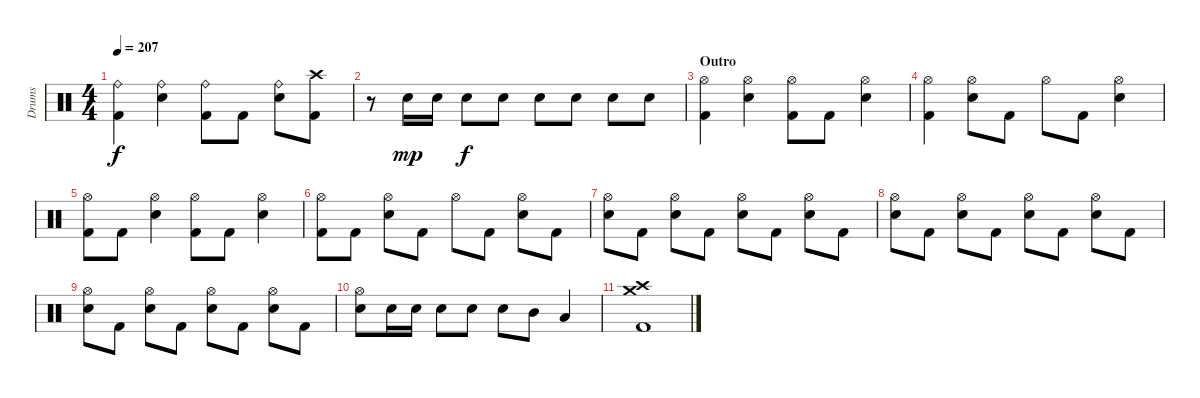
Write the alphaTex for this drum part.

\track ("Drums" "Drums") {instrument percussion}
\staff {score}
\articulation defaults
\ts (4 4)
\tempo 207
\clef neutral
\ks c
("Ride (bell)" "Kick (hit) 2").4{dy f} ("Ride (bell)" "Snare (hit) 2").4 ("Ride (bell)" "Kick (hit) 2").8 "Kick (hit) 2".8 ("Ride (bell)" "Snare (hit) 2").8 ("Crash high (hit)" "Kick (hit) 2").8 |
r.8 "Snare (hit) 2".16{dy mp} "Snare (hit) 2".16 "Snare (hit) 2".8{dy f} "Snare (hit) 2".8 "Snare (hit) 2".8 "Snare (hit) 2".8 "Snare (hit) 2".8 "Snare (hit) 2".8 |
\section ("" "Outro")
("Hi-Hat (open)" "Kick (hit) 2").4 ("Hi-Hat (open)" "Snare (hit) 2").4 ("Hi-Hat (open)" "Kick (hit) 2").8 "Kick (hit) 2".8 ("Hi-Hat (open)" "Snare (hit) 2").4 |
("Hi-Hat (open)" "Kick (hit) 2").4 ("Hi-Hat (open)" "Snare (hit) 2").8 "Kick (hit) 2".8 "Hi-Hat (open)".8 "Kick (hit) 2".8 ("Hi-Hat (open)" "Snare (hit) 2").4 |
("Hi-Hat (open)" "Kick (hit) 2").8 "Kick (hit) 2".8 ("Hi-Hat (open)" "Snare (hit) 2").4 ("Hi-Hat (open)" "Kick (hit) 2").8 "Kick (hit) 2".8 ("Hi-Hat (open)" "Snare (hit) 2").4 |
("Hi-Hat (open)" "Kick (hit) 2").8 "Kick (hit) 2".8 ("Hi-Hat (open)" "Snare (hit) 2").8 "Kick (hit) 2".8 "Hi-Hat (open)".8 "Kick (hit) 2".8 ("Hi-Hat (open)" "Snare (hit) 2").8 "Kick (hit) 2".8 |
("Hi-Hat (open)" "Snare (hit) 2").8 "Kick (hit) 2".8 ("Hi-Hat (open)" "Snare (hit) 2").8 "Kick (hit) 2".8 ("Hi-Hat (open)" "Snare (hit) 2").8 "Kick (hit) 2".8 ("Hi-Hat (open)" "Snare (hit) 2").8 "Kick (hit) 2".8 |
("Hi-Hat (open)" "Snare (hit) 2").8 "Kick (hit) 2".8 ("Hi-Hat (open)" "Snare (hit) 2").8 "Kick (hit) 2".8 ("Hi-Hat (open)" "Snare (hit) 2").8 "Kick (hit) 2".8 ("Hi-Hat (open)" "Snare (hit) 2").8 "Kick (hit) 2".8 |
("Hi-Hat (open)" "Snare (hit) 2").8 "Kick (hit) 2".8 ("Hi-Hat (open)" "Snare (hit) 2").8 "Kick (hit) 2".8 ("Hi-Hat (open)" "Snare (hit) 2").8 "Kick (hit) 2".8 ("Hi-Hat (open)" "Snare (hit) 2").8 "Kick (hit) 2".8 |
("Hi-Hat (open)" "Snare (hit) 2").8 "Snare (hit) 2".16 "Snare (hit) 2".16 "Snare (hit) 2".8 "Snare (hit) 2".8 "Snare (hit) 2".8 "Mid Tom (hit)".8 "Low Tom (hit)".4 |
("Crash high (hit)" "Crash medium (hit)" "Kick (hit) 2").1
